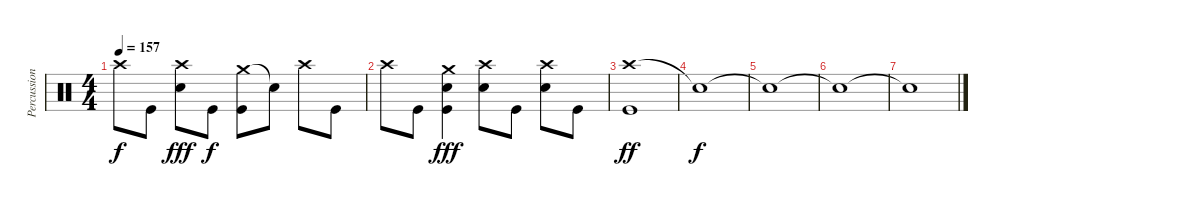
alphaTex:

\track ("Percussion" "Percussion") {instrument percussion}
\staff {score}
\articulation defaults
\ts (4 4)
\tempo 157
\clef neutral
\ks c "Crash high (hit)".8{dy f} "Kick (hit)".8
("Crash high (hit)" "Electric Snare (hit)").8{dy fff} "Kick (hit)".8{dy f} ("Crash medium (hit)" "Kick (hit)").8 "Snare (hit)"{t}.8 "Crash high (hit)".8 "Kick (hit)".8 |
"Crash high (hit)".8 "Kick (hit)".8 ("Crash medium (hit)" "Electric Snare (hit)" "Kick (hit)").4{dy fff} ("Crash high (hit)" "Electric Snare (hit)").8 "Kick (hit)".8 ("Crash high (hit)" "Electric Snare (hit)").8 "Kick (hit)".8 |
("Crash high (hit)" "Kick (hit)").1{dy ff} |
"Snare (hit)"{t}.1{dy f} |
"Snare (hit)"{t}.1 |
"Snare (hit)"{t}.1 |
"Snare (hit)"{t}.1
